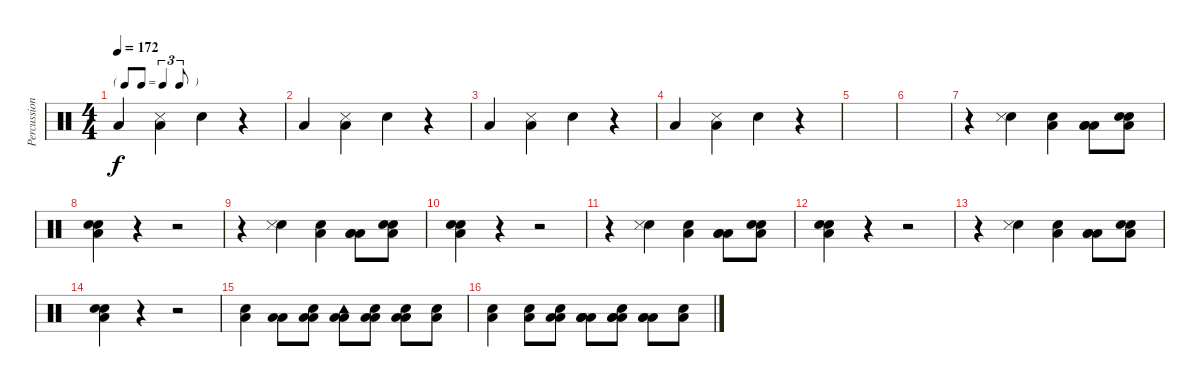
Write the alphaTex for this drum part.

\track ("Percussions" "Percussion") {instrument percussion}
\staff {score}
\articulation defaults
\ts (4 4)
\tf triplet8th
\tempo 172
\clef neutral
\ks c "Low Tom (hit)".4{dy f}
("Low Floor Tom (hit)" "Snare (side stick) 3").4 "Snare (hit) 2".4 r.4 |
"Low Floor Tom (hit)".4 ("Low Floor Tom (hit)" "Snare (side stick) 3").4 "Snare (hit) 2".4 r.4 |
"Low Tom (hit)".4 ("Low Floor Tom (hit)" "Snare (side stick) 3").4 "Snare (hit) 2".4 r.4 |
"Low Floor Tom (hit)".4 ("Low Floor Tom (hit)" "Snare (side stick) 3").4 "Snare (hit) 2".4 r.4 |
|
|
r.4 ("Snare (hit) 2" "Snare (side stick) 3").4 ("Low Tom (hit)" "Snare (hit) 2").4 ("Low Tom (hit)" "Low Floor Tom (hit)" "Low Floor Tom (hit)").8 ("Low Floor Tom (hit)" "Snare (hit) 2" "Snare (hit) 2").8 |
("Low Floor Tom (hit)" "Snare (hit) 2" "Electric Snare (hit)").4 r.4 r.2 |
r.4 ("Snare (hit) 2" "Snare (side stick) 3").4 ("Low Tom (hit)" "Snare (hit) 2").4 ("Low Tom (hit)" "Low Floor Tom (hit)" "Low Floor Tom (hit)").8 ("Low Floor Tom (hit)" "Snare (hit) 2" "Snare (hit) 2").8 |
("Low Floor Tom (hit)" "Snare (hit) 2" "Electric Snare (hit)").4 r.4 r.2 |
r.4 ("Snare (hit) 2" "Snare (side stick) 3").4 ("Low Tom (hit)" "Snare (hit) 2").4 ("Low Tom (hit)" "Low Floor Tom (hit)" "Low Floor Tom (hit)").8 ("Low Floor Tom (hit)" "Snare (hit) 2" "Snare (hit) 2").8 |
("Low Floor Tom (hit)" "Snare (hit) 2" "Electric Snare (hit)").4 r.4 r.2 |
r.4 ("Snare (hit) 2" "Snare (side stick) 3").4 ("Low Tom (hit)" "Snare (hit) 2").4 ("Low Tom (hit)" "Low Floor Tom (hit)" "Low Floor Tom (hit)").8 ("Low Floor Tom (hit)" "Snare (hit) 2" "Snare (hit) 2").8 |
("Low Floor Tom (hit)" "Snare (hit) 2" "Electric Snare (hit)").4 r.4 r.2 |
("Low Floor Tom (hit)" "Snare (hit) 2").4 ("Low Tom (hit)" "Low Tom (hit)").8 ("Low Tom (hit)" "Low Floor Tom (hit)" "Snare (hit) 2").8 ("Tambourine (hit)" "Low Tom (hit)" "Low Floor Tom (hit)").8 ("Low Tom (hit)" "Low Floor Tom (hit)" "Snare (hit) 2").8 ("Low Tom (hit)" "Low Floor Tom (hit)" "Snare (hit) 2").8 ("Low Floor Tom (hit)" "Snare (hit) 2").8 |
("Low Tom (hit)" "Snare (hit) 2").4 ("Low Floor Tom (hit)" "Snare (hit) 2").8 ("Low Tom (hit)" "Low Floor Tom (hit)" "Snare (hit) 2").8 ("Low Floor Tom (hit)" "Low Tom (hit)" "Low Floor Tom (hit)" "Low Tom (hit)").8 ("Low Tom (hit)" "Low Floor Tom (hit)" "Low Floor Tom (hit)" "Snare (hit) 2").8 ("Low Floor Tom (hit)" "Low Floor Tom (hit)" "Low Tom (hit)").8 ("Low Tom (hit)" "Snare (hit) 2").8
